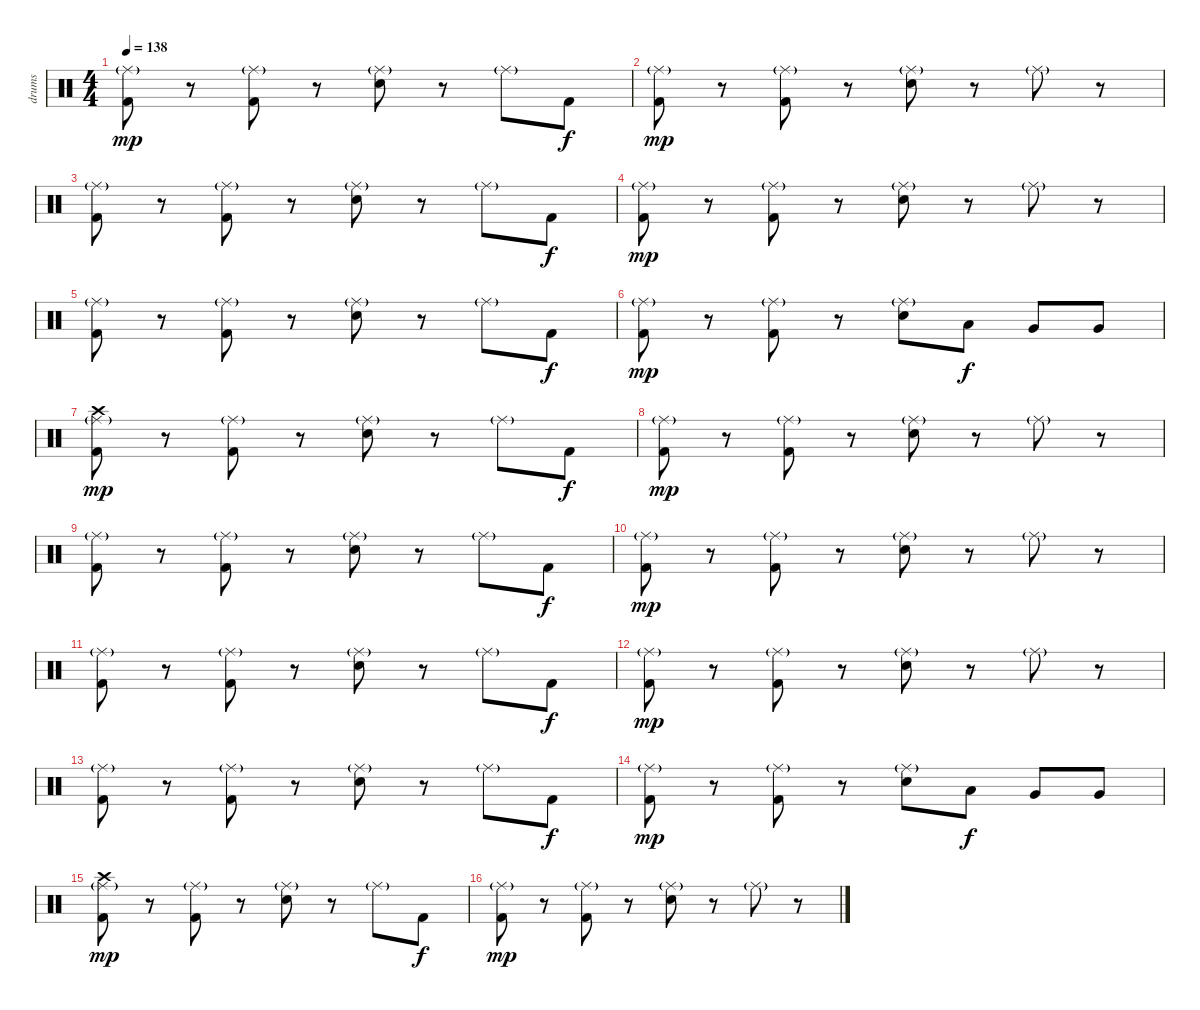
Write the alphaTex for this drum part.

\track ("drums" "drums") {instrument percussion}
\staff {score}
\articulation defaults
\ts (4 4)
\tempo 138
\clef neutral
\ks c
("Kick (hit) 2" "Ride (middle)"{g}).8{dy mp} r.8 ("Kick (hit) 2" "Ride (middle)"{g}).8 r.8 ("Electric Snare (hit)" "Ride (middle)"{g}).8 r.8 "Ride (middle)"{g}.8 "Kick (hit) 2".8{dy f} |
("Kick (hit) 2" "Ride (middle)"{g}).8{dy mp} r.8 ("Kick (hit) 2" "Ride (middle)"{g}).8 r.8 ("Electric Snare (hit)" "Ride (middle)"{g}).8 r.8 "Ride (middle)"{g}.8 r.8 |
("Kick (hit) 2" "Ride (middle)"{g}).8 r.8 ("Kick (hit) 2" "Ride (middle)"{g}).8 r.8 ("Electric Snare (hit)" "Ride (middle)"{g}).8 r.8 "Ride (middle)"{g}.8 "Kick (hit) 2".8{dy f} |
("Kick (hit) 2" "Ride (middle)"{g}).8{dy mp} r.8 ("Kick (hit) 2" "Ride (middle)"{g}).8 r.8 ("Electric Snare (hit)" "Ride (middle)"{g}).8 r.8 "Ride (middle)"{g}.8 r.8 |
("Kick (hit) 2" "Ride (middle)"{g}).8 r.8 ("Kick (hit) 2" "Ride (middle)"{g}).8 r.8 ("Electric Snare (hit)" "Ride (middle)"{g}).8 r.8 "Ride (middle)"{g}.8 "Kick (hit) 2".8{dy f} |
("Kick (hit) 2" "Ride (middle)"{g}).8{dy mp} r.8 ("Kick (hit) 2" "Ride (middle)"{g}).8 r.8 ("Electric Snare (hit)" "Ride (middle)"{g}).8 "Low Tom (hit)".8{dy f} "Very Low Tom (hit)".8 "Very Low Tom (hit)".8 |
("Kick (hit) 2" "Ride (middle)"{g} "Crash high (hit)").8{dy mp} r.8 ("Kick (hit) 2" "Ride (middle)"{g}).8 r.8 ("Electric Snare (hit)" "Ride (middle)"{g}).8 r.8 "Ride (middle)"{g}.8 "Kick (hit) 2".8{dy f} |
("Kick (hit) 2" "Ride (middle)"{g}).8{dy mp} r.8 ("Kick (hit) 2" "Ride (middle)"{g}).8 r.8 ("Electric Snare (hit)" "Ride (middle)"{g}).8 r.8 "Ride (middle)"{g}.8 r.8 |
("Kick (hit) 2" "Ride (middle)"{g}).8 r.8 ("Kick (hit) 2" "Ride (middle)"{g}).8 r.8 ("Electric Snare (hit)" "Ride (middle)"{g}).8 r.8 "Ride (middle)"{g}.8 "Kick (hit) 2".8{dy f} |
("Kick (hit) 2" "Ride (middle)"{g}).8{dy mp} r.8 ("Kick (hit) 2" "Ride (middle)"{g}).8 r.8 ("Electric Snare (hit)" "Ride (middle)"{g}).8 r.8 "Ride (middle)"{g}.8 r.8 |
("Kick (hit) 2" "Ride (middle)"{g}).8 r.8 ("Kick (hit) 2" "Ride (middle)"{g}).8 r.8 ("Electric Snare (hit)" "Ride (middle)"{g}).8 r.8 "Ride (middle)"{g}.8 "Kick (hit) 2".8{dy f} |
("Kick (hit) 2" "Ride (middle)"{g}).8{dy mp} r.8 ("Kick (hit) 2" "Ride (middle)"{g}).8 r.8 ("Electric Snare (hit)" "Ride (middle)"{g}).8 r.8 "Ride (middle)"{g}.8 r.8 |
("Kick (hit) 2" "Ride (middle)"{g}).8 r.8 ("Kick (hit) 2" "Ride (middle)"{g}).8 r.8 ("Electric Snare (hit)" "Ride (middle)"{g}).8 r.8 "Ride (middle)"{g}.8 "Kick (hit) 2".8{dy f} |
("Kick (hit) 2" "Ride (middle)"{g}).8{dy mp} r.8 ("Kick (hit) 2" "Ride (middle)"{g}).8 r.8 ("Electric Snare (hit)" "Ride (middle)"{g}).8 "Low Tom (hit)".8{dy f} "Very Low Tom (hit)".8 "Very Low Tom (hit)".8 |
("Kick (hit) 2" "Ride (middle)"{g} "Crash high (hit)").8{dy mp} r.8 ("Kick (hit) 2" "Ride (middle)"{g}).8 r.8 ("Electric Snare (hit)" "Ride (middle)"{g}).8 r.8 "Ride (middle)"{g}.8 "Kick (hit) 2".8{dy f} |
("Kick (hit) 2" "Ride (middle)"{g}).8{dy mp} r.8 ("Kick (hit) 2" "Ride (middle)"{g}).8 r.8 ("Electric Snare (hit)" "Ride (middle)"{g}).8 r.8 "Ride (middle)"{g}.8 r.8
